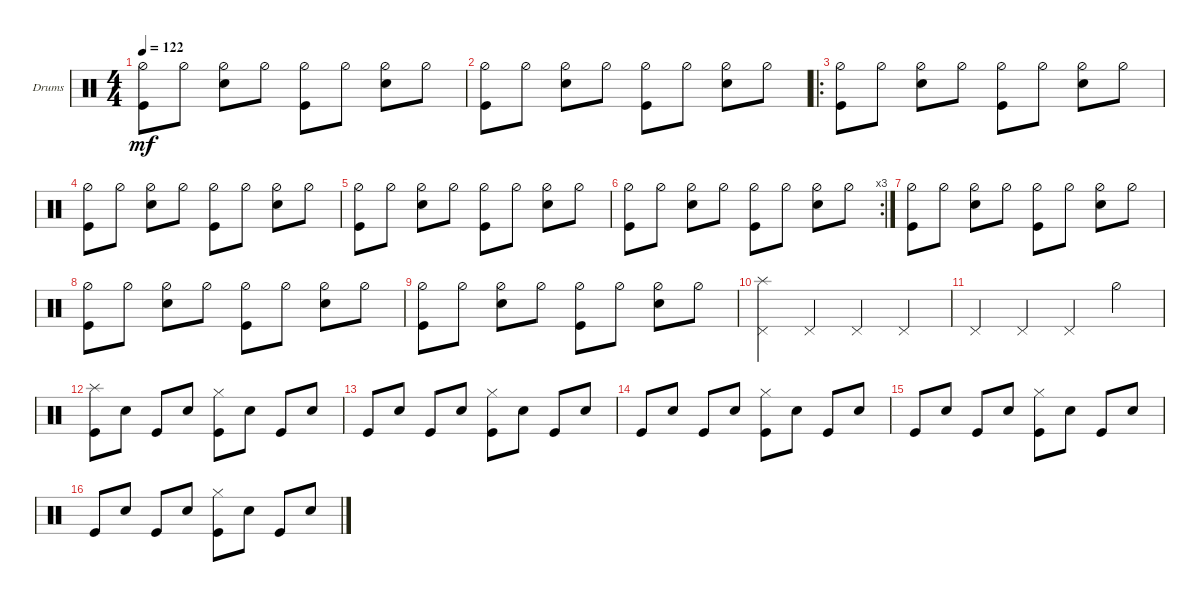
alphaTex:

\defaultSystemsLayout 4
\bracketExtendMode groupsimilarinstruments
\firstSystemTrackNameOrientation horizontal
\otherSystemsTrackNameOrientation horizontal
\track ("Drumkit" "Drums") {instrument percussion}
\staff {score}
\articulation defaults
\ts (4 4)
\tempo 122
\clef neutral
\ks c
("Hi-Hat (half)" "Kick (hit)").8{dy mf} "Hi-Hat (half)".8 ("Hi-Hat (half)" "Snare (hit) 2").8 "Hi-Hat (half)".8 ("Hi-Hat (half)" "Kick (hit)").8 "Hi-Hat (half)".8 ("Hi-Hat (half)" "Snare (hit) 2").8 "Hi-Hat (half)".8 |
("Hi-Hat (half)" "Kick (hit)").8 "Hi-Hat (half)".8 ("Hi-Hat (half)" "Snare (hit) 2").8 "Hi-Hat (half)".8 ("Hi-Hat (half)" "Kick (hit)").8 "Hi-Hat (half)".8 ("Hi-Hat (half)" "Snare (hit) 2").8 "Hi-Hat (half)".8 |
\ro
("Hi-Hat (half)" "Kick (hit)").8 "Hi-Hat (half)".8 ("Hi-Hat (half)" "Snare (hit) 2").8 "Hi-Hat (half)".8 ("Hi-Hat (half)" "Kick (hit)").8 "Hi-Hat (half)".8 ("Hi-Hat (half)" "Snare (hit) 2").8 "Hi-Hat (half)".8 |
("Hi-Hat (half)" "Kick (hit)").8 "Hi-Hat (half)".8 ("Hi-Hat (half)" "Snare (hit) 2").8 "Hi-Hat (half)".8 ("Hi-Hat (half)" "Kick (hit)").8 "Hi-Hat (half)".8 ("Hi-Hat (half)" "Snare (hit) 2").8 "Hi-Hat (half)".8 |
("Hi-Hat (half)" "Kick (hit)").8 "Hi-Hat (half)".8 ("Hi-Hat (half)" "Snare (hit) 2").8 "Hi-Hat (half)".8 ("Hi-Hat (half)" "Kick (hit)").8 "Hi-Hat (half)".8 ("Hi-Hat (half)" "Snare (hit) 2").8 "Hi-Hat (half)".8 |
\rc 3
("Hi-Hat (half)" "Kick (hit)").8 "Hi-Hat (half)".8 ("Hi-Hat (half)" "Snare (hit) 2").8 "Hi-Hat (half)".8 ("Hi-Hat (half)" "Kick (hit)").8 "Hi-Hat (half)".8 ("Hi-Hat (half)" "Snare (hit) 2").8 "Hi-Hat (half)".8 |
("Hi-Hat (half)" "Kick (hit)").8 "Hi-Hat (half)".8 ("Hi-Hat (half)" "Snare (hit) 2").8 "Hi-Hat (half)".8 ("Hi-Hat (half)" "Kick (hit)").8 "Hi-Hat (half)".8 ("Hi-Hat (half)" "Snare (hit) 2").8 "Hi-Hat (half)".8 |
("Hi-Hat (half)" "Kick (hit)").8 "Hi-Hat (half)".8 ("Hi-Hat (half)" "Snare (hit) 2").8 "Hi-Hat (half)".8 ("Hi-Hat (half)" "Kick (hit)").8 "Hi-Hat (half)".8 ("Hi-Hat (half)" "Snare (hit) 2").8 "Hi-Hat (half)".8 |
("Hi-Hat (half)" "Kick (hit)").8 "Hi-Hat (half)".8 ("Hi-Hat (half)" "Snare (hit) 2").8 "Hi-Hat (half)".8 ("Hi-Hat (half)" "Kick (hit)").8 "Hi-Hat (half)".8 ("Hi-Hat (half)" "Snare (hit) 2").8 "Hi-Hat (half)".8 |
("Pedal Hi-Hat (hit)" "Splash (hit)").4 "Pedal Hi-Hat (hit)".4 "Pedal Hi-Hat (hit)".4 "Pedal Hi-Hat (hit)".4 |
"Pedal Hi-Hat (hit)".4 "Pedal Hi-Hat (hit)".4 "Pedal Hi-Hat (hit)".4 "Hi-Hat (half)".4 |
("Kick (hit)" "Splash (hit)").8 "Snare (hit) 2".8 "Kick (hit)".8 "Snare (hit) 2".8 ("Kick (hit)" "Hi-Hat (closed)").8 "Snare (hit) 2".8 "Kick (hit)".8 "Snare (hit) 2".8 |
"Kick (hit)".8 "Snare (hit) 2".8 "Kick (hit)".8 "Snare (hit) 2".8 ("Kick (hit)" "Hi-Hat (closed)").8 "Snare (hit) 2".8 "Kick (hit)".8 "Snare (hit) 2".8 |
"Kick (hit)".8 "Snare (hit) 2".8 "Kick (hit)".8 "Snare (hit) 2".8 ("Kick (hit)" "Hi-Hat (closed)").8 "Snare (hit) 2".8 "Kick (hit)".8 "Snare (hit) 2".8 |
"Kick (hit)".8 "Snare (hit) 2".8 "Kick (hit)".8 "Snare (hit) 2".8 ("Kick (hit)" "Hi-Hat (closed)").8 "Snare (hit) 2".8 "Kick (hit)".8 "Snare (hit) 2".8 |
"Kick (hit)".8 "Snare (hit) 2".8 "Kick (hit)".8 "Snare (hit) 2".8 ("Kick (hit)" "Hi-Hat (closed)").8 "Snare (hit) 2".8 "Kick (hit)".8 "Snare (hit) 2".8
